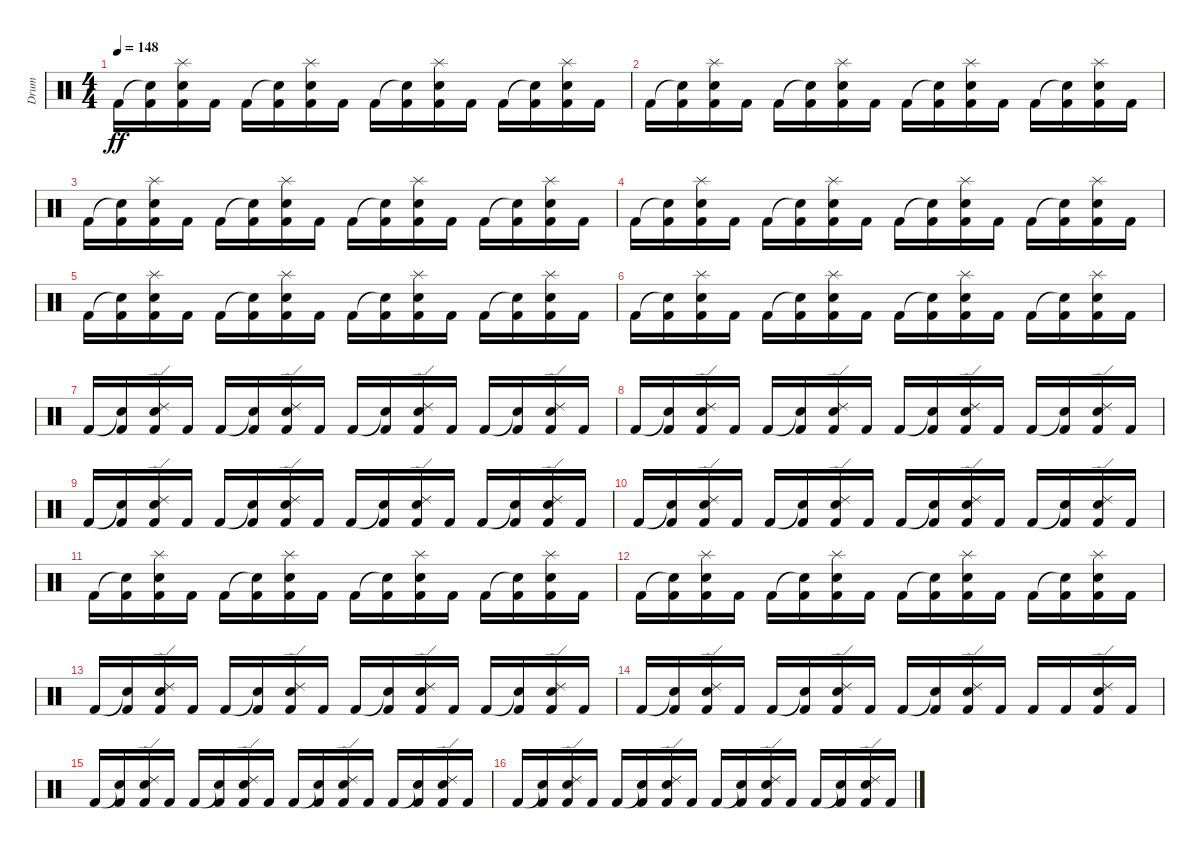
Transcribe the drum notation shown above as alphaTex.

\track ("Drum" "Drum") {instrument percussion}
\staff {score}
\articulation defaults
\ts (4 4)
\tempo 148
\clef neutral
\ks c "Kick (hit) 2".16{dy ff}
("Snare (hit)"{t} "Kick (hit) 2").16 ("Splash (hit)" "Snare (hit) 2" "Kick (hit) 2").16 "Kick (hit) 2".16 "Kick (hit) 2".16 ("Snare (hit)"{t} "Kick (hit) 2").16 ("Splash (hit)" "Snare (hit) 2" "Kick (hit) 2").16 "Kick (hit) 2".16 "Kick (hit) 2".16 ("Snare (hit)"{t} "Kick (hit) 2").16 ("Splash (hit)" "Snare (hit) 2" "Kick (hit) 2").16 "Kick (hit) 2".16 "Kick (hit) 2".16 ("Snare (hit)"{t} "Kick (hit) 2").16 ("Splash (hit)" "Snare (hit) 2" "Kick (hit) 2").16 "Kick (hit) 2".16 |
"Kick (hit) 2".16 ("Snare (hit)"{t} "Kick (hit) 2").16 ("Splash (hit)" "Snare (hit) 2" "Kick (hit) 2").16 "Kick (hit) 2".16 "Kick (hit) 2".16 ("Snare (hit)"{t} "Kick (hit) 2").16 ("Splash (hit)" "Snare (hit) 2" "Kick (hit) 2").16 "Kick (hit) 2".16 "Kick (hit) 2".16 ("Snare (hit)"{t} "Kick (hit) 2").16 ("Splash (hit)" "Snare (hit) 2" "Kick (hit) 2").16 "Kick (hit) 2".16 "Kick (hit) 2".16 ("Snare (hit)"{t} "Kick (hit) 2").16 ("Splash (hit)" "Snare (hit) 2" "Kick (hit) 2").16 "Kick (hit) 2".16 |
"Kick (hit) 2".16 ("Snare (hit)"{t} "Kick (hit) 2").16 ("Splash (hit)" "Snare (hit) 2" "Kick (hit) 2").16 "Kick (hit) 2".16 "Kick (hit) 2".16 ("Snare (hit)"{t} "Kick (hit) 2").16 ("Splash (hit)" "Snare (hit) 2" "Kick (hit) 2").16 "Kick (hit) 2".16 "Kick (hit) 2".16 ("Snare (hit)"{t} "Kick (hit) 2").16 ("Splash (hit)" "Snare (hit) 2" "Kick (hit) 2").16 "Kick (hit) 2".16 "Kick (hit) 2".16 ("Snare (hit)"{t} "Kick (hit) 2").16 ("Splash (hit)" "Snare (hit) 2" "Kick (hit) 2").16 "Kick (hit) 2".16 |
"Kick (hit) 2".16 ("Snare (hit)"{t} "Kick (hit) 2").16 ("Splash (hit)" "Snare (hit) 2" "Kick (hit) 2").16 "Kick (hit) 2".16 "Kick (hit) 2".16 ("Snare (hit)"{t} "Kick (hit) 2").16 ("Splash (hit)" "Snare (hit) 2" "Kick (hit) 2").16 "Kick (hit) 2".16 "Kick (hit) 2".16 ("Snare (hit)"{t} "Kick (hit) 2").16 ("Splash (hit)" "Snare (hit) 2" "Kick (hit) 2").16 "Kick (hit) 2".16 "Kick (hit) 2".16 ("Snare (hit)"{t} "Kick (hit) 2").16 ("Splash (hit)" "Snare (hit) 2" "Kick (hit) 2").16 "Kick (hit) 2".16 |
"Kick (hit) 2".16 ("Snare (hit)"{t} "Kick (hit) 2").16 ("Splash (hit)" "Snare (hit) 2" "Kick (hit) 2").16 "Kick (hit) 2".16 "Kick (hit) 2".16 ("Snare (hit)"{t} "Kick (hit) 2").16 ("Splash (hit)" "Snare (hit) 2" "Kick (hit) 2").16 "Kick (hit) 2".16 "Kick (hit) 2".16 ("Snare (hit)"{t} "Kick (hit) 2").16 ("Splash (hit)" "Snare (hit) 2" "Kick (hit) 2").16 "Kick (hit) 2".16 "Kick (hit) 2".16 ("Snare (hit)"{t} "Kick (hit) 2").16 ("Splash (hit)" "Snare (hit) 2" "Kick (hit) 2").16 "Kick (hit) 2".16 |
"Kick (hit) 2".16 ("Snare (hit)"{t} "Kick (hit) 2").16 ("Splash (hit)" "Snare (hit) 2" "Kick (hit) 2").16 "Kick (hit) 2".16 "Kick (hit) 2".16 ("Snare (hit)"{t} "Kick (hit) 2").16 ("Splash (hit)" "Snare (hit) 2" "Kick (hit) 2").16 "Kick (hit) 2".16 "Kick (hit) 2".16 ("Snare (hit)"{t} "Kick (hit) 2").16 ("Splash (hit)" "Snare (hit) 2" "Kick (hit) 2").16 "Kick (hit) 2".16 "Kick (hit) 2".16 ("Snare (hit)"{t} "Kick (hit) 2").16 ("Splash (hit)" "Snare (hit) 2" "Kick (hit) 2").16 "Kick (hit) 2".16 |
"Kick (hit) 2".16 ("Snare (hit)"{t} "Kick (hit) 2").16 ("Ride (edge) 2" "Snare (hit) 2" "Kick (hit) 2").16 "Kick (hit) 2".16 "Kick (hit) 2".16 ("Snare (hit)"{t} "Kick (hit) 2").16 ("Ride (edge) 2" "Snare (hit) 2" "Kick (hit) 2").16 "Kick (hit) 2".16 "Kick (hit) 2".16 ("Snare (hit)"{t} "Kick (hit) 2").16 ("Ride (edge) 2" "Snare (hit) 2" "Kick (hit) 2").16 "Kick (hit) 2".16 "Kick (hit) 2".16 ("Snare (hit)"{t} "Kick (hit) 2").16 ("Ride (edge) 2" "Snare (hit) 2" "Kick (hit) 2").16 "Kick (hit) 2".16 |
"Kick (hit) 2".16 ("Snare (hit)"{t} "Kick (hit) 2").16 ("Ride (edge) 2" "Snare (hit) 2" "Kick (hit) 2").16 "Kick (hit) 2".16 "Kick (hit) 2".16 ("Snare (hit)"{t} "Kick (hit) 2").16 ("Ride (edge) 2" "Snare (hit) 2" "Kick (hit) 2").16 "Kick (hit) 2".16 "Kick (hit) 2".16 ("Snare (hit)"{t} "Kick (hit) 2").16 ("Ride (edge) 2" "Snare (hit) 2" "Kick (hit) 2").16 "Kick (hit) 2".16 "Kick (hit) 2".16 ("Snare (hit)"{t} "Kick (hit) 2").16 ("Ride (edge) 2" "Snare (hit) 2" "Kick (hit) 2").16 "Kick (hit) 2".16 |
"Kick (hit) 2".16 ("Snare (hit)"{t} "Kick (hit) 2").16 ("Ride (edge) 2" "Snare (hit) 2" "Kick (hit) 2").16 "Kick (hit) 2".16 "Kick (hit) 2".16 ("Snare (hit)"{t} "Kick (hit) 2").16 ("Ride (edge) 2" "Snare (hit) 2" "Kick (hit) 2").16 "Kick (hit) 2".16 "Kick (hit) 2".16 ("Snare (hit)"{t} "Kick (hit) 2").16 ("Ride (edge) 2" "Snare (hit) 2" "Kick (hit) 2").16 "Kick (hit) 2".16 "Kick (hit) 2".16 ("Snare (hit)"{t} "Kick (hit) 2").16 ("Ride (edge) 2" "Snare (hit) 2" "Kick (hit) 2").16 "Kick (hit) 2".16 |
"Kick (hit) 2".16 ("Snare (hit)"{t} "Kick (hit) 2").16 ("Ride (edge) 2" "Snare (hit) 2" "Kick (hit) 2").16 "Kick (hit) 2".16 "Kick (hit) 2".16 ("Snare (hit)"{t} "Kick (hit) 2").16 ("Ride (edge) 2" "Snare (hit) 2" "Kick (hit) 2").16 "Kick (hit) 2".16 "Kick (hit) 2".16 ("Snare (hit)"{t} "Kick (hit) 2").16 ("Ride (edge) 2" "Snare (hit) 2" "Kick (hit) 2").16 "Kick (hit) 2".16 "Kick (hit) 2".16 ("Snare (hit)"{t} "Kick (hit) 2").16 ("Ride (edge) 2" "Snare (hit) 2" "Kick (hit) 2").16 "Kick (hit) 2".16 |
"Kick (hit) 2".16 ("Snare (hit)"{t} "Kick (hit) 2").16 ("Splash (hit)" "Snare (hit) 2" "Kick (hit) 2").16 "Kick (hit) 2".16 "Kick (hit) 2".16 ("Snare (hit)"{t} "Kick (hit) 2").16 ("Splash (hit)" "Snare (hit) 2" "Kick (hit) 2").16 "Kick (hit) 2".16 "Kick (hit) 2".16 ("Snare (hit)"{t} "Kick (hit) 2").16 ("Splash (hit)" "Snare (hit) 2" "Kick (hit) 2").16 "Kick (hit) 2".16 "Kick (hit) 2".16 ("Snare (hit)"{t} "Kick (hit) 2").16 ("Splash (hit)" "Snare (hit) 2" "Kick (hit) 2").16 "Kick (hit) 2".16 |
"Kick (hit) 2".16 ("Snare (hit)"{t} "Kick (hit) 2").16 ("Splash (hit)" "Snare (hit) 2" "Kick (hit) 2").16 "Kick (hit) 2".16 "Kick (hit) 2".16 ("Snare (hit)"{t} "Kick (hit) 2").16 ("Splash (hit)" "Snare (hit) 2" "Kick (hit) 2").16 "Kick (hit) 2".16 "Kick (hit) 2".16 ("Snare (hit)"{t} "Kick (hit) 2").16 ("Splash (hit)" "Snare (hit) 2" "Kick (hit) 2").16 "Kick (hit) 2".16 "Kick (hit) 2".16 ("Snare (hit)"{t} "Kick (hit) 2").16 ("Splash (hit)" "Snare (hit) 2" "Kick (hit) 2").16 "Kick (hit) 2".16 |
"Kick (hit) 2".16 ("Snare (hit)"{t} "Kick (hit) 2").16 ("Ride (edge) 2" "Snare (hit) 2" "Kick (hit) 2").16 "Kick (hit) 2".16 "Kick (hit) 2".16 ("Snare (hit)"{t} "Kick (hit) 2").16 ("Ride (edge) 2" "Snare (hit) 2" "Kick (hit) 2").16 "Kick (hit) 2".16 "Kick (hit) 2".16 ("Snare (hit)"{t} "Kick (hit) 2").16 ("Ride (edge) 2" "Snare (hit) 2" "Kick (hit) 2").16 "Kick (hit) 2".16 "Kick (hit) 2".16 ("Snare (hit)"{t} "Kick (hit) 2").16 ("Ride (edge) 2" "Snare (hit) 2" "Kick (hit) 2").16 "Kick (hit) 2".16 |
"Kick (hit) 2".16 ("Snare (hit)"{t} "Kick (hit) 2").16 ("Ride (edge) 2" "Snare (hit) 2" "Kick (hit) 2").16 "Kick (hit) 2".16 "Kick (hit) 2".16 ("Snare (hit)"{t} "Kick (hit) 2").16 ("Ride (edge) 2" "Snare (hit) 2" "Kick (hit) 2").16 "Kick (hit) 2".16 "Kick (hit) 2".16 ("Snare (hit)"{t} "Kick (hit) 2").16 ("Ride (edge) 2" "Snare (hit) 2" "Kick (hit) 2").16 "Kick (hit) 2".16 "Kick (hit) 2".16 "Kick (hit) 2".16 ("Ride (edge) 2" "Snare (hit) 2" "Kick (hit) 2").16 "Kick (hit) 2".16 |
"Kick (hit) 2".16 ("Snare (hit)"{t} "Kick (hit) 2").16 ("Ride (edge) 2" "Snare (hit) 2" "Kick (hit) 2").16 "Kick (hit) 2".16 "Kick (hit) 2".16 ("Snare (hit)"{t} "Kick (hit) 2").16 ("Ride (edge) 2" "Snare (hit) 2" "Kick (hit) 2").16 "Kick (hit) 2".16 "Kick (hit) 2".16 ("Snare (hit)"{t} "Kick (hit) 2").16 ("Ride (edge) 2" "Snare (hit) 2" "Kick (hit) 2").16 "Kick (hit) 2".16 "Kick (hit) 2".16 ("Snare (hit)"{t} "Kick (hit) 2").16 ("Ride (edge) 2" "Snare (hit) 2" "Kick (hit) 2").16 "Kick (hit) 2".16 |
"Kick (hit) 2".16 ("Snare (hit)"{t} "Kick (hit) 2").16 ("Ride (edge) 2" "Snare (hit) 2" "Kick (hit) 2").16 "Kick (hit) 2".16 "Kick (hit) 2".16 ("Snare (hit)"{t} "Kick (hit) 2").16 ("Ride (edge) 2" "Snare (hit) 2" "Kick (hit) 2").16 "Kick (hit) 2".16 "Kick (hit) 2".16 ("Snare (hit)"{t} "Kick (hit) 2").16 ("Ride (edge) 2" "Snare (hit) 2" "Kick (hit) 2").16 "Kick (hit) 2".16 "Kick (hit) 2".16 ("Snare (hit)"{t} "Kick (hit) 2").16 ("Ride (edge) 2" "Snare (hit) 2" "Kick (hit) 2").16 "Kick (hit) 2".16
